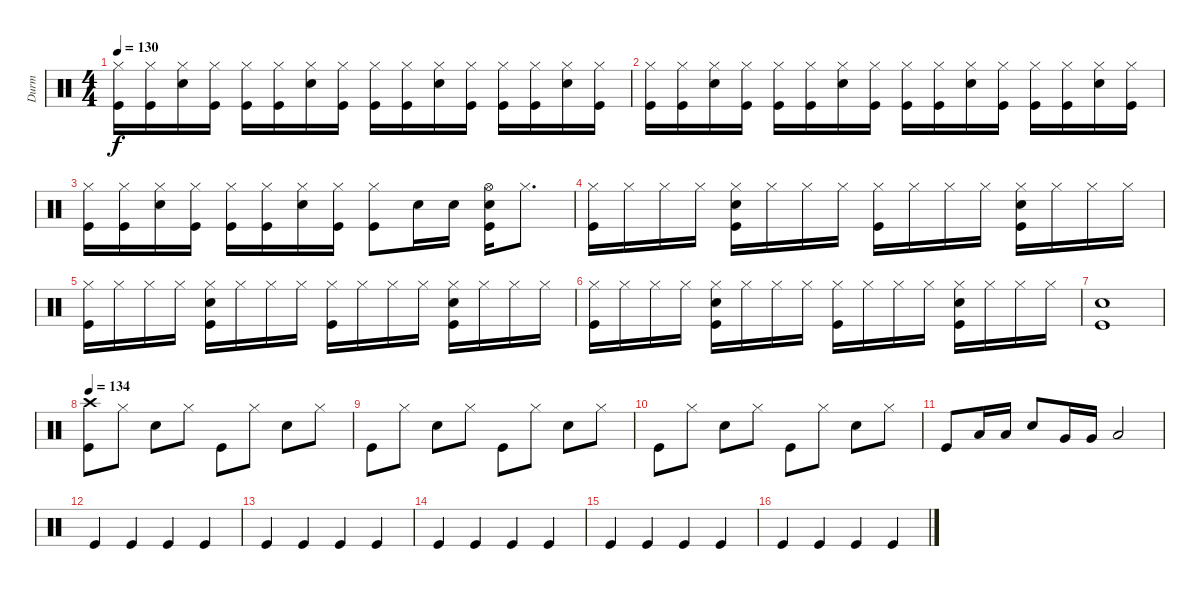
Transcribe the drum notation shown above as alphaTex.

\track ("Durm" "Durm") {instrument percussion}
\staff {score}
\articulation defaults
\ts (4 4)
\tempo 130
\clef neutral
\ks c
("Hi-Hat (closed)" "Kick (hit)").16{dy f} ("Hi-Hat (closed)" "Kick (hit)").16 ("Hi-Hat (closed)" "Electric Snare (hit)").16 ("Hi-Hat (closed)" "Kick (hit)").16 ("Hi-Hat (closed)" "Kick (hit)").16 ("Hi-Hat (closed)" "Kick (hit)").16 ("Hi-Hat (closed)" "Electric Snare (hit)").16 ("Hi-Hat (closed)" "Kick (hit)").16 ("Hi-Hat (closed)" "Kick (hit)").16 ("Hi-Hat (closed)" "Kick (hit)").16 ("Hi-Hat (closed)" "Electric Snare (hit)").16 ("Hi-Hat (closed)" "Kick (hit)").16 ("Hi-Hat (closed)" "Kick (hit)").16 ("Hi-Hat (closed)" "Kick (hit)").16 ("Hi-Hat (closed)" "Electric Snare (hit)").16 ("Hi-Hat (closed)" "Kick (hit)").16 |
("Hi-Hat (closed)" "Kick (hit)").16 ("Hi-Hat (closed)" "Kick (hit)").16 ("Hi-Hat (closed)" "Electric Snare (hit)").16 ("Hi-Hat (closed)" "Kick (hit)").16 ("Hi-Hat (closed)" "Kick (hit)").16 ("Hi-Hat (closed)" "Kick (hit)").16 ("Hi-Hat (closed)" "Electric Snare (hit)").16 ("Hi-Hat (closed)" "Kick (hit)").16 ("Hi-Hat (closed)" "Kick (hit)").16 ("Hi-Hat (closed)" "Kick (hit)").16 ("Hi-Hat (closed)" "Electric Snare (hit)").16 ("Hi-Hat (closed)" "Kick (hit)").16 ("Hi-Hat (closed)" "Kick (hit)").16 ("Hi-Hat (closed)" "Kick (hit)").16 ("Hi-Hat (closed)" "Electric Snare (hit)").16 ("Hi-Hat (closed)" "Kick (hit)").16 |
("Hi-Hat (closed)" "Kick (hit)").16 ("Hi-Hat (closed)" "Kick (hit)").16 ("Hi-Hat (closed)" "Electric Snare (hit)").16 ("Hi-Hat (closed)" "Kick (hit)").16 ("Hi-Hat (closed)" "Kick (hit)").16 ("Hi-Hat (closed)" "Kick (hit)").16 ("Hi-Hat (closed)" "Electric Snare (hit)").16 ("Hi-Hat (closed)" "Kick (hit)").16 ("Hi-Hat (closed)" "Kick (hit)").8 "Electric Snare (hit)".16 "Electric Snare (hit)".16 ("Hi-Hat (open)" "Electric Snare (hit)" "Kick (hit)").16 "Hi-Hat (closed)".8{d volume 0} |
("Hi-Hat (closed)" "Kick (hit)").16{volume 16} "Hi-Hat (closed)".16 "Hi-Hat (closed)".16 "Hi-Hat (closed)".16 ("Hi-Hat (closed)" "Electric Snare (hit)" "Kick (hit)").16 "Hi-Hat (closed)".16 "Hi-Hat (closed)".16 "Hi-Hat (closed)".16 ("Hi-Hat (closed)" "Kick (hit)").16 "Hi-Hat (closed)".16 "Hi-Hat (closed)".16 "Hi-Hat (closed)".16 ("Hi-Hat (closed)" "Electric Snare (hit)" "Kick (hit)").16 "Hi-Hat (closed)".16 "Hi-Hat (closed)".16 "Hi-Hat (closed)".16 |
("Hi-Hat (closed)" "Kick (hit)").16 "Hi-Hat (closed)".16 "Hi-Hat (closed)".16 "Hi-Hat (closed)".16 ("Hi-Hat (closed)" "Electric Snare (hit)" "Kick (hit)").16 "Hi-Hat (closed)".16 "Hi-Hat (closed)".16 "Hi-Hat (closed)".16 ("Hi-Hat (closed)" "Kick (hit)").16 "Hi-Hat (closed)".16 "Hi-Hat (closed)".16 "Hi-Hat (closed)".16 ("Hi-Hat (closed)" "Electric Snare (hit)" "Kick (hit)").16 "Hi-Hat (closed)".16 "Hi-Hat (closed)".16 "Hi-Hat (closed)".16 |
("Hi-Hat (closed)" "Kick (hit)").16 "Hi-Hat (closed)".16 "Hi-Hat (closed)".16 "Hi-Hat (closed)".16 ("Hi-Hat (closed)" "Electric Snare (hit)" "Kick (hit)").16 "Hi-Hat (closed)".16 "Hi-Hat (closed)".16 "Hi-Hat (closed)".16 ("Hi-Hat (closed)" "Kick (hit)").16 "Hi-Hat (closed)".16 "Hi-Hat (closed)".16 "Hi-Hat (closed)".16 ("Hi-Hat (closed)" "Electric Snare (hit)" "Kick (hit)").16 "Hi-Hat (closed)".16 "Hi-Hat (closed)".16 "Hi-Hat (closed)".16 |
("Kick (hit)" "Electric Snare (hit)").1 |
\tempo 134
("Crash high (hit)" "Kick (hit)").8 "Hi-Hat (closed)".8 "Electric Snare (hit)".8 "Hi-Hat (closed)".8 "Kick (hit)".8 "Hi-Hat (closed)".8 "Electric Snare (hit)".8 "Hi-Hat (closed)".8 |
"Kick (hit)".8 "Hi-Hat (closed)".8 "Electric Snare (hit)".8 "Hi-Hat (closed)".8 "Kick (hit)".8 "Hi-Hat (closed)".8 "Electric Snare (hit)".8 "Hi-Hat (closed)".8 |
"Kick (hit)".8 "Hi-Hat (closed)".8 "Electric Snare (hit)".8 "Hi-Hat (closed)".8 "Kick (hit)".8 "Hi-Hat (closed)".8 "Electric Snare (hit)".8 "Hi-Hat (closed)".8 |
"Kick (hit)".8 "Low Tom (hit)".16 "Low Tom (hit)".16 "Electric Snare (hit)".8 "Very Low Tom (hit)".16 "Very Low Tom (hit)".16 "Low Floor Tom (hit)".2 |
"Kick (hit)".4 "Kick (hit)".4 "Kick (hit)".4 "Kick (hit)".4 |
"Kick (hit)".4 "Kick (hit)".4 "Kick (hit)".4 "Kick (hit)".4 |
"Kick (hit)".4 "Kick (hit)".4 "Kick (hit)".4 "Kick (hit)".4 |
"Kick (hit)".4 "Kick (hit)".4 "Kick (hit)".4 "Kick (hit)".4 |
"Kick (hit)".4 "Kick (hit)".4 "Kick (hit)".4 "Kick (hit)".4
